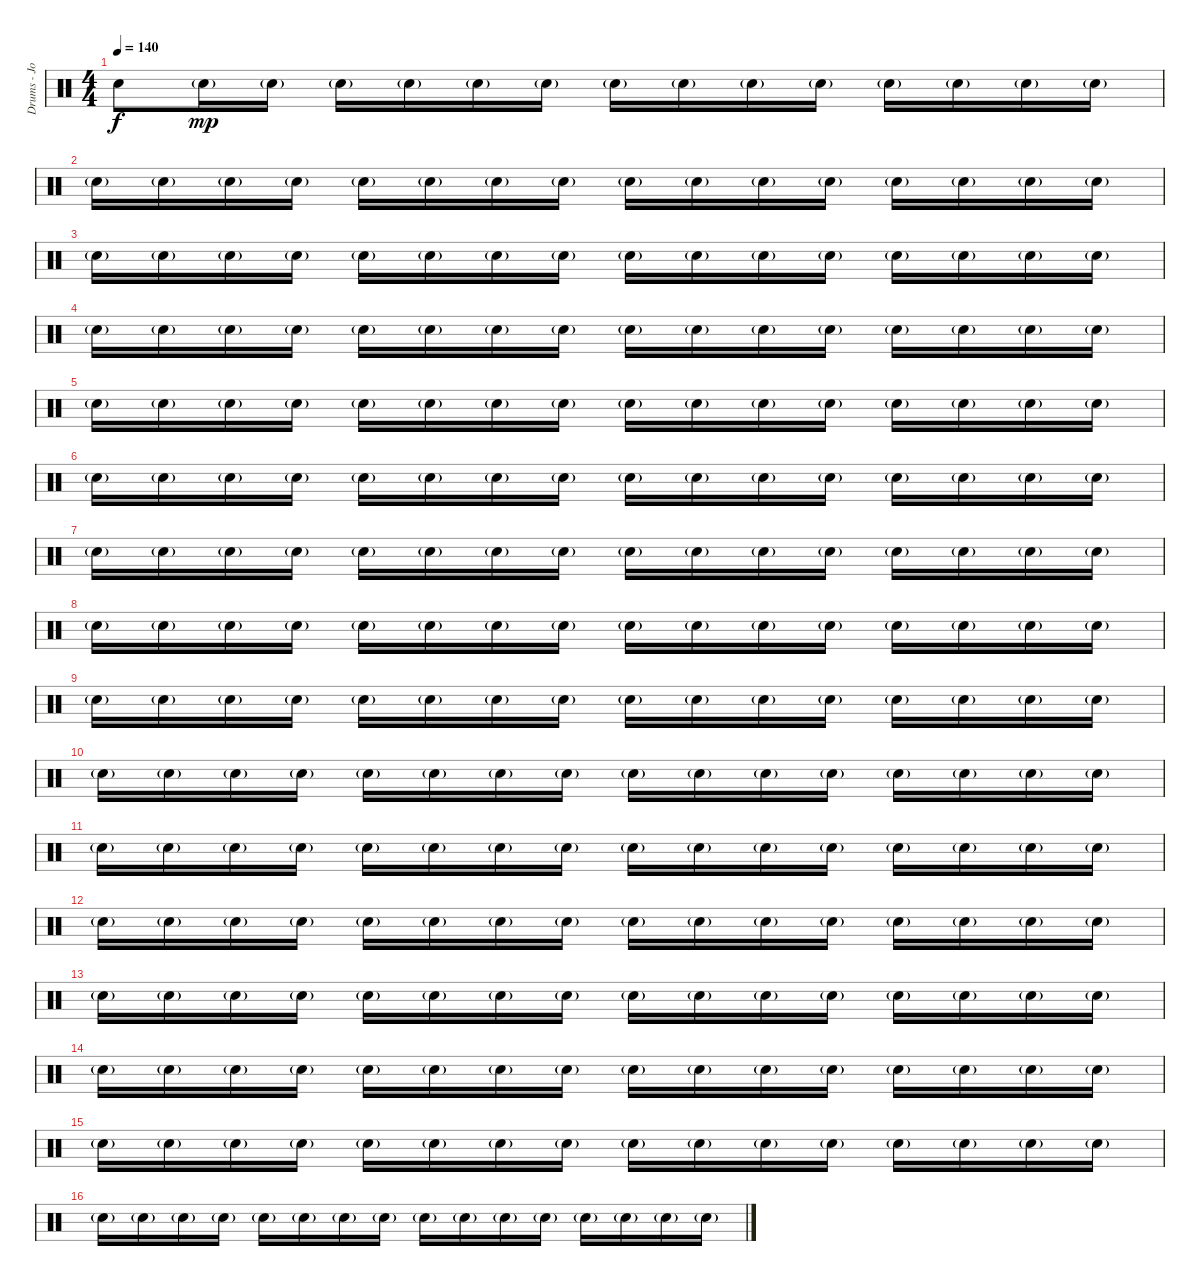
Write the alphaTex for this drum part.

\track ("Drums - Josh Klinghoffer" "Drums - Jo") {instrument percussion}
\staff {score}
\articulation defaults
\ts (4 4)
\tempo 140
\clef neutral
\ks c "Electric Snare (hit)".8{dy f} "Snare (hit) 2"{g}.16{dy mp} "Snare (hit) 2"{g}.16 "Snare (hit) 2"{g}.16 "Snare (hit) 2"{g}.16 "Snare (hit) 2"{g}.16 "Snare (hit) 2"{g}.16 "Snare (hit) 2"{g}.16 "Snare (hit) 2"{g}.16 "Snare (hit) 2"{g}.16 "Snare (hit) 2"{g}.16 "Snare (hit) 2"{g}.16 "Snare (hit) 2"{g}.16 "Snare (hit) 2"{g}.16 "Snare (hit) 2"{g}.16
|
"Snare (hit) 2"{g}.16 "Snare (hit) 2"{g}.16 "Snare (hit) 2"{g}.16 "Snare (hit) 2"{g}.16 "Snare (hit) 2"{g}.16 "Snare (hit) 2"{g}.16 "Snare (hit) 2"{g}.16 "Snare (hit) 2"{g}.16 "Snare (hit) 2"{g}.16 "Snare (hit) 2"{g}.16 "Snare (hit) 2"{g}.16 "Snare (hit) 2"{g}.16 "Snare (hit) 2"{g}.16 "Snare (hit) 2"{g}.16 "Snare (hit) 2"{g}.16 "Snare (hit) 2"{g}.16 |
"Snare (hit) 2"{g}.16 "Snare (hit) 2"{g}.16 "Snare (hit) 2"{g}.16 "Snare (hit) 2"{g}.16 "Snare (hit) 2"{g}.16 "Snare (hit) 2"{g}.16 "Snare (hit) 2"{g}.16 "Snare (hit) 2"{g}.16 "Snare (hit) 2"{g}.16 "Snare (hit) 2"{g}.16 "Snare (hit) 2"{g}.16 "Snare (hit) 2"{g}.16 "Snare (hit) 2"{g}.16 "Snare (hit) 2"{g}.16 "Snare (hit) 2"{g}.16 "Snare (hit) 2"{g}.16 |
"Snare (hit) 2"{g}.16 "Snare (hit) 2"{g}.16 "Snare (hit) 2"{g}.16 "Snare (hit) 2"{g}.16 "Snare (hit) 2"{g}.16 "Snare (hit) 2"{g}.16 "Snare (hit) 2"{g}.16 "Snare (hit) 2"{g}.16 "Snare (hit) 2"{g}.16 "Snare (hit) 2"{g}.16 "Snare (hit) 2"{g}.16 "Snare (hit) 2"{g}.16 "Snare (hit) 2"{g}.16 "Snare (hit) 2"{g}.16 "Snare (hit) 2"{g}.16 "Snare (hit) 2"{g}.16 |
"Snare (hit) 2"{g}.16 "Snare (hit) 2"{g}.16 "Snare (hit) 2"{g}.16 "Snare (hit) 2"{g}.16 "Snare (hit) 2"{g}.16 "Snare (hit) 2"{g}.16 "Snare (hit) 2"{g}.16 "Snare (hit) 2"{g}.16 "Snare (hit) 2"{g}.16 "Snare (hit) 2"{g}.16 "Snare (hit) 2"{g}.16 "Snare (hit) 2"{g}.16 "Snare (hit) 2"{g}.16 "Snare (hit) 2"{g}.16 "Snare (hit) 2"{g}.16 "Snare (hit) 2"{g}.16 |
"Snare (hit) 2"{g}.16 "Snare (hit) 2"{g}.16 "Snare (hit) 2"{g}.16 "Snare (hit) 2"{g}.16 "Snare (hit) 2"{g}.16 "Snare (hit) 2"{g}.16 "Snare (hit) 2"{g}.16 "Snare (hit) 2"{g}.16 "Snare (hit) 2"{g}.16 "Snare (hit) 2"{g}.16 "Snare (hit) 2"{g}.16 "Snare (hit) 2"{g}.16 "Snare (hit) 2"{g}.16 "Snare (hit) 2"{g}.16 "Snare (hit) 2"{g}.16 "Snare (hit) 2"{g}.16 |
"Snare (hit) 2"{g}.16 "Snare (hit) 2"{g}.16 "Snare (hit) 2"{g}.16 "Snare (hit) 2"{g}.16 "Snare (hit) 2"{g}.16 "Snare (hit) 2"{g}.16 "Snare (hit) 2"{g}.16 "Snare (hit) 2"{g}.16 "Snare (hit) 2"{g}.16 "Snare (hit) 2"{g}.16 "Snare (hit) 2"{g}.16 "Snare (hit) 2"{g}.16 "Snare (hit) 2"{g}.16 "Snare (hit) 2"{g}.16 "Snare (hit) 2"{g}.16 "Snare (hit) 2"{g}.16 |
"Snare (hit) 2"{g}.16 "Snare (hit) 2"{g}.16 "Snare (hit) 2"{g}.16 "Snare (hit) 2"{g}.16 "Snare (hit) 2"{g}.16 "Snare (hit) 2"{g}.16 "Snare (hit) 2"{g}.16 "Snare (hit) 2"{g}.16 "Snare (hit) 2"{g}.16 "Snare (hit) 2"{g}.16 "Snare (hit) 2"{g}.16 "Snare (hit) 2"{g}.16 "Snare (hit) 2"{g}.16 "Snare (hit) 2"{g}.16 "Snare (hit) 2"{g}.16 "Snare (hit) 2"{g}.16 |
"Snare (hit) 2"{g}.16 "Snare (hit) 2"{g}.16 "Snare (hit) 2"{g}.16 "Snare (hit) 2"{g}.16 "Snare (hit) 2"{g}.16 "Snare (hit) 2"{g}.16 "Snare (hit) 2"{g}.16 "Snare (hit) 2"{g}.16 "Snare (hit) 2"{g}.16 "Snare (hit) 2"{g}.16 "Snare (hit) 2"{g}.16 "Snare (hit) 2"{g}.16 "Snare (hit) 2"{g}.16 "Snare (hit) 2"{g}.16 "Snare (hit) 2"{g}.16 "Snare (hit) 2"{g}.16 |
"Snare (hit) 2"{g}.16 "Snare (hit) 2"{g}.16 "Snare (hit) 2"{g}.16 "Snare (hit) 2"{g}.16 "Snare (hit) 2"{g}.16 "Snare (hit) 2"{g}.16 "Snare (hit) 2"{g}.16 "Snare (hit) 2"{g}.16 "Snare (hit) 2"{g}.16 "Snare (hit) 2"{g}.16 "Snare (hit) 2"{g}.16 "Snare (hit) 2"{g}.16 "Snare (hit) 2"{g}.16 "Snare (hit) 2"{g}.16 "Snare (hit) 2"{g}.16 "Snare (hit) 2"{g}.16 |
"Snare (hit) 2"{g}.16 "Snare (hit) 2"{g}.16 "Snare (hit) 2"{g}.16 "Snare (hit) 2"{g}.16 "Snare (hit) 2"{g}.16 "Snare (hit) 2"{g}.16 "Snare (hit) 2"{g}.16 "Snare (hit) 2"{g}.16 "Snare (hit) 2"{g}.16 "Snare (hit) 2"{g}.16 "Snare (hit) 2"{g}.16 "Snare (hit) 2"{g}.16 "Snare (hit) 2"{g}.16 "Snare (hit) 2"{g}.16 "Snare (hit) 2"{g}.16 "Snare (hit) 2"{g}.16 |
"Snare (hit) 2"{g}.16 "Snare (hit) 2"{g}.16 "Snare (hit) 2"{g}.16 "Snare (hit) 2"{g}.16 "Snare (hit) 2"{g}.16 "Snare (hit) 2"{g}.16 "Snare (hit) 2"{g}.16 "Snare (hit) 2"{g}.16 "Snare (hit) 2"{g}.16 "Snare (hit) 2"{g}.16 "Snare (hit) 2"{g}.16 "Snare (hit) 2"{g}.16 "Snare (hit) 2"{g}.16 "Snare (hit) 2"{g}.16 "Snare (hit) 2"{g}.16 "Snare (hit) 2"{g}.16 |
"Snare (hit) 2"{g}.16 "Snare (hit) 2"{g}.16 "Snare (hit) 2"{g}.16 "Snare (hit) 2"{g}.16 "Snare (hit) 2"{g}.16 "Snare (hit) 2"{g}.16 "Snare (hit) 2"{g}.16 "Snare (hit) 2"{g}.16 "Snare (hit) 2"{g}.16 "Snare (hit) 2"{g}.16 "Snare (hit) 2"{g}.16 "Snare (hit) 2"{g}.16 "Snare (hit) 2"{g}.16 "Snare (hit) 2"{g}.16 "Snare (hit) 2"{g}.16 "Snare (hit) 2"{g}.16 |
"Snare (hit) 2"{g}.16 "Snare (hit) 2"{g}.16 "Snare (hit) 2"{g}.16 "Snare (hit) 2"{g}.16 "Snare (hit) 2"{g}.16 "Snare (hit) 2"{g}.16 "Snare (hit) 2"{g}.16 "Snare (hit) 2"{g}.16 "Snare (hit) 2"{g}.16 "Snare (hit) 2"{g}.16 "Snare (hit) 2"{g}.16 "Snare (hit) 2"{g}.16 "Snare (hit) 2"{g}.16 "Snare (hit) 2"{g}.16 "Snare (hit) 2"{g}.16 "Snare (hit) 2"{g}.16 |
"Snare (hit) 2"{g}.16 "Snare (hit) 2"{g}.16 "Snare (hit) 2"{g}.16 "Snare (hit) 2"{g}.16 "Snare (hit) 2"{g}.16 "Snare (hit) 2"{g}.16 "Snare (hit) 2"{g}.16 "Snare (hit) 2"{g}.16 "Snare (hit) 2"{g}.16 "Snare (hit) 2"{g}.16 "Snare (hit) 2"{g}.16 "Snare (hit) 2"{g}.16 "Snare (hit) 2"{g}.16 "Snare (hit) 2"{g}.16 "Snare (hit) 2"{g}.16 "Snare (hit) 2"{g}.16 |
"Snare (hit) 2"{g}.16 "Snare (hit) 2"{g}.16 "Snare (hit) 2"{g}.16 "Snare (hit) 2"{g}.16 "Snare (hit) 2"{g}.16 "Snare (hit) 2"{g}.16 "Snare (hit) 2"{g}.16 "Snare (hit) 2"{g}.16 "Snare (hit) 2"{g}.16 "Snare (hit) 2"{g}.16 "Snare (hit) 2"{g}.16 "Snare (hit) 2"{g}.16 "Snare (hit) 2"{g}.16 "Snare (hit) 2"{g}.16 "Snare (hit) 2"{g}.16 "Snare (hit) 2"{g}.16
